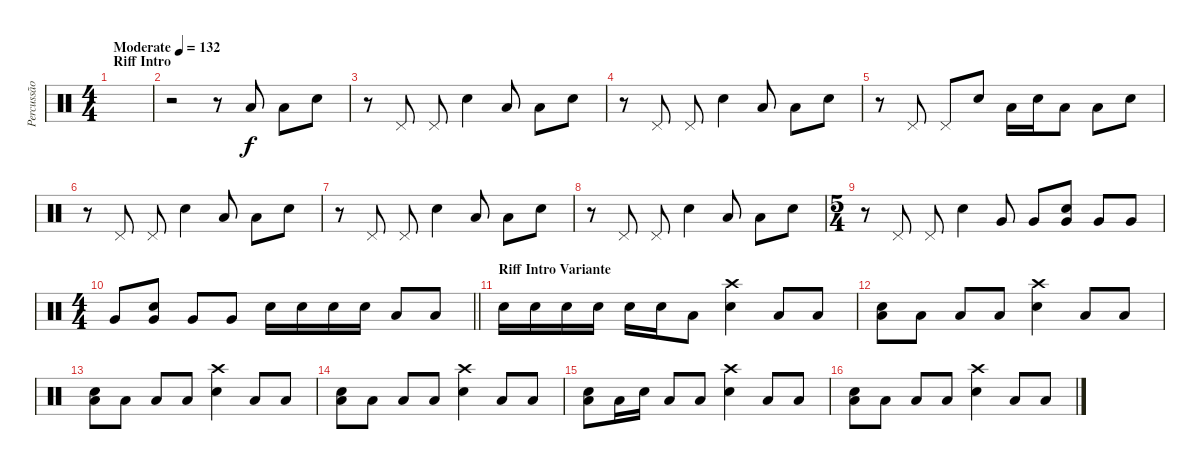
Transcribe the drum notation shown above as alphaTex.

\track ("Percussão" "Percussão") {instrument percussion}
\staff {score}
\articulation defaults
\ts (4 4)
\section ("" "Riff Intro")
\tempo (132 "Moderate")
\clef neutral
\ks c
|
r.2 r.8 "Low Floor Tom (hit)".8 "Low Floor Tom (hit)".8 "Electric Snare (hit)".8 |
r.8 "Pedal Hi-Hat (hit)".8 "Pedal Hi-Hat (hit)".8 "Electric Snare (hit)".4 "Low Floor Tom (hit)".8 "Low Floor Tom (hit)".8 "Electric Snare (hit)".8 |
r.8 "Pedal Hi-Hat (hit)".8 "Pedal Hi-Hat (hit)".8 "Electric Snare (hit)".4 "Low Floor Tom (hit)".8 "Low Floor Tom (hit)".8 "Electric Snare (hit)".8 |
r.8 "Pedal Hi-Hat (hit)".8 "Pedal Hi-Hat (hit)".8 "Electric Snare (hit)".8 "Low Tom (hit)".16 "Electric Snare (hit)".16 "Low Floor Tom (hit)".8 "Low Floor Tom (hit)".8 "Electric Snare (hit)".8 |
r.8 "Pedal Hi-Hat (hit)".8 "Pedal Hi-Hat (hit)".8 "Electric Snare (hit)".4 "Low Floor Tom (hit)".8 "Low Floor Tom (hit)".8 "Electric Snare (hit)".8 |
r.8 "Pedal Hi-Hat (hit)".8 "Pedal Hi-Hat (hit)".8 "Electric Snare (hit)".4 "Low Floor Tom (hit)".8 "Low Floor Tom (hit)".8 "Electric Snare (hit)".8 |
r.8 "Pedal Hi-Hat (hit)".8 "Pedal Hi-Hat (hit)".8 "Electric Snare (hit)".4 "Low Floor Tom (hit)".8 "Low Floor Tom (hit)".8 "Electric Snare (hit)".8 |
\ts (5 4)
r.8 "Pedal Hi-Hat (hit)".8 "Pedal Hi-Hat (hit)".8 "Electric Snare (hit)".4 "Very Low Tom (hit)".8 "Very Low Tom (hit)".8 ("Very Low Tom (hit)" "Electric Snare (hit)").8 "Very Low Tom (hit)".8 "Very Low Tom (hit)".8 |
\ts (4 4)
\barLineRight lightlight "Very Low Tom (hit)".8
("Very Low Tom (hit)" "Electric Snare (hit)").8 "Very Low Tom (hit)".8 "Very Low Tom (hit)".8 "Electric Snare (hit)".16 "Electric Snare (hit)".16 "Electric Snare (hit)".16 "Electric Snare (hit)".16 "Low Floor Tom (hit)".8 "Low Floor Tom (hit)".8 |
\section ("" "Riff Intro Variante")
"Electric Snare (hit)".16 "Electric Snare (hit)".16 "Electric Snare (hit)".16 "Electric Snare (hit)".16 "Electric Snare (hit)".16 "Electric Snare (hit)".16 "Low Floor Tom (hit)".8 ("Electric Snare (hit)" "Crash high (hit)").4 "Low Floor Tom (hit)".8 "Low Floor Tom (hit)".8 |
("Low Floor Tom (hit)" "Electric Snare (hit)").8 "Low Floor Tom (hit)".8 "Low Floor Tom (hit)".8 "Low Floor Tom (hit)".8 ("Electric Snare (hit)" "Crash high (hit)").4 "Low Floor Tom (hit)".8 "Low Floor Tom (hit)".8 |
("Low Floor Tom (hit)" "Electric Snare (hit)").8 "Low Floor Tom (hit)".8 "Low Floor Tom (hit)".8 "Low Floor Tom (hit)".8 ("Electric Snare (hit)" "Crash high (hit)").4 "Low Floor Tom (hit)".8 "Low Floor Tom (hit)".8 |
("Low Floor Tom (hit)" "Electric Snare (hit)").8 "Low Floor Tom (hit)".8 "Low Floor Tom (hit)".8 "Low Floor Tom (hit)".8 ("Electric Snare (hit)" "Crash high (hit)").4 "Low Floor Tom (hit)".8 "Low Floor Tom (hit)".8 |
("Low Floor Tom (hit)" "Electric Snare (hit)").8 "Low Tom (hit)".16 "Electric Snare (hit)".16 "Low Floor Tom (hit)".8 "Low Floor Tom (hit)".8 ("Electric Snare (hit)" "Crash high (hit)").4 "Low Floor Tom (hit)".8 "Low Floor Tom (hit)".8 |
("Low Floor Tom (hit)" "Electric Snare (hit)").8 "Low Floor Tom (hit)".8 "Low Floor Tom (hit)".8 "Low Floor Tom (hit)".8 ("Electric Snare (hit)" "Crash high (hit)").4 "Low Floor Tom (hit)".8 "Low Floor Tom (hit)".8
